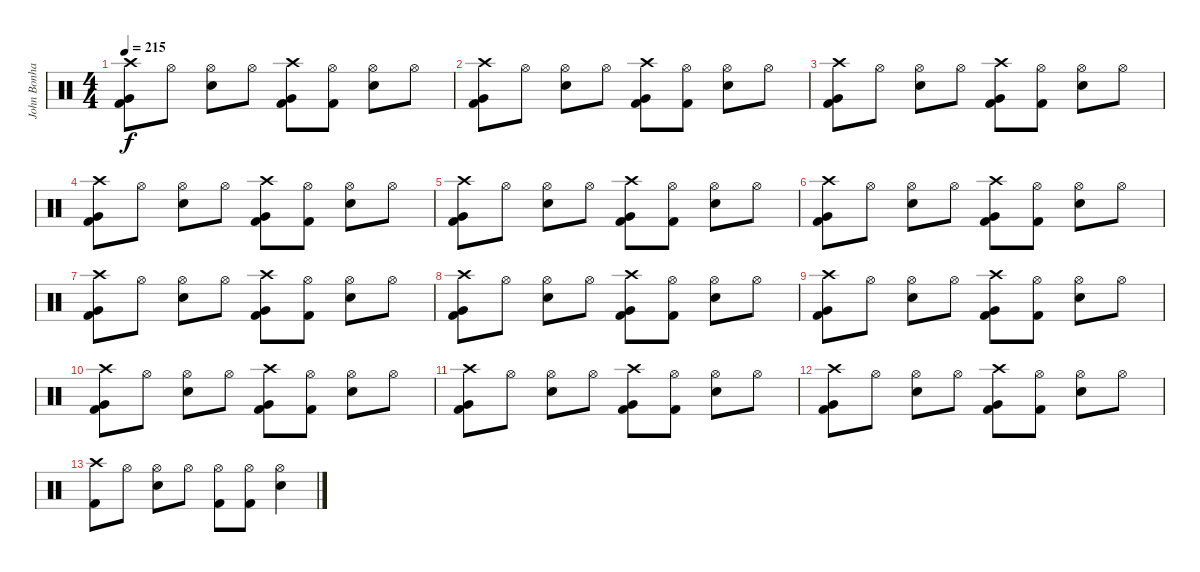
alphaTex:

\track ("John Bonham" "John Bonha") {instrument percussion}
\staff {score}
\articulation defaults
\ts (4 4)
\tempo 215
\clef neutral
\ks c
("Crash high (hit)" "Very Low Tom (hit)" "Kick (hit) 2").8{dy f} "Hi-Hat (open)".8 ("Hi-Hat (open)" "Snare (hit) 2").8 "Hi-Hat (open)".8 ("Crash high (hit)" "Very Low Tom (hit)" "Kick (hit) 2").8 ("Hi-Hat (open)" "Kick (hit) 2").8 ("Hi-Hat (open)" "Snare (hit) 2").8 "Hi-Hat (open)".8 |
("Crash high (hit)" "Very Low Tom (hit)" "Kick (hit) 2").8 "Hi-Hat (open)".8 ("Hi-Hat (open)" "Snare (hit) 2").8 "Hi-Hat (open)".8 ("Crash high (hit)" "Very Low Tom (hit)" "Kick (hit) 2").8 ("Hi-Hat (open)" "Kick (hit) 2").8 ("Hi-Hat (open)" "Snare (hit) 2").8 "Hi-Hat (open)".8 |
("Crash high (hit)" "Very Low Tom (hit)" "Kick (hit) 2").8 "Hi-Hat (open)".8 ("Hi-Hat (open)" "Snare (hit) 2").8 "Hi-Hat (open)".8 ("Crash high (hit)" "Very Low Tom (hit)" "Kick (hit) 2").8 ("Hi-Hat (open)" "Kick (hit) 2").8 ("Hi-Hat (open)" "Snare (hit) 2").8 "Hi-Hat (open)".8 |
("Crash high (hit)" "Very Low Tom (hit)" "Kick (hit) 2").8 "Hi-Hat (open)".8 ("Hi-Hat (open)" "Snare (hit) 2").8 "Hi-Hat (open)".8 ("Crash high (hit)" "Very Low Tom (hit)" "Kick (hit) 2").8 ("Hi-Hat (open)" "Kick (hit) 2").8 ("Hi-Hat (open)" "Snare (hit) 2").8 "Hi-Hat (open)".8 |
("Crash high (hit)" "Very Low Tom (hit)" "Kick (hit) 2").8 "Hi-Hat (open)".8 ("Hi-Hat (open)" "Snare (hit) 2").8 "Hi-Hat (open)".8 ("Crash high (hit)" "Very Low Tom (hit)" "Kick (hit) 2").8 ("Hi-Hat (open)" "Kick (hit) 2").8 ("Hi-Hat (open)" "Snare (hit) 2").8 "Hi-Hat (open)".8 |
("Crash high (hit)" "Very Low Tom (hit)" "Kick (hit) 2").8 "Hi-Hat (open)".8 ("Hi-Hat (open)" "Snare (hit) 2").8 "Hi-Hat (open)".8 ("Crash high (hit)" "Very Low Tom (hit)" "Kick (hit) 2").8 ("Hi-Hat (open)" "Kick (hit) 2").8 ("Hi-Hat (open)" "Snare (hit) 2").8 "Hi-Hat (open)".8 |
("Crash high (hit)" "Very Low Tom (hit)" "Kick (hit) 2").8 "Hi-Hat (open)".8 ("Hi-Hat (open)" "Snare (hit) 2").8 "Hi-Hat (open)".8 ("Crash high (hit)" "Very Low Tom (hit)" "Kick (hit) 2").8 ("Hi-Hat (open)" "Kick (hit) 2").8 ("Hi-Hat (open)" "Snare (hit) 2").8 "Hi-Hat (open)".8 |
("Crash high (hit)" "Very Low Tom (hit)" "Kick (hit) 2").8 "Hi-Hat (open)".8 ("Hi-Hat (open)" "Snare (hit) 2").8 "Hi-Hat (open)".8 ("Crash high (hit)" "Very Low Tom (hit)" "Kick (hit) 2").8 ("Hi-Hat (open)" "Kick (hit) 2").8 ("Hi-Hat (open)" "Snare (hit) 2").8 "Hi-Hat (open)".8 |
("Crash high (hit)" "Very Low Tom (hit)" "Kick (hit) 2").8 "Hi-Hat (open)".8 ("Hi-Hat (open)" "Snare (hit) 2").8 "Hi-Hat (open)".8 ("Crash high (hit)" "Very Low Tom (hit)" "Kick (hit) 2").8 ("Hi-Hat (open)" "Kick (hit) 2").8 ("Hi-Hat (open)" "Snare (hit) 2").8 "Hi-Hat (open)".8 |
("Crash high (hit)" "Very Low Tom (hit)" "Kick (hit) 2").8 "Hi-Hat (open)".8 ("Hi-Hat (open)" "Snare (hit) 2").8 "Hi-Hat (open)".8 ("Crash high (hit)" "Very Low Tom (hit)" "Kick (hit) 2").8 ("Hi-Hat (open)" "Kick (hit) 2").8 ("Hi-Hat (open)" "Snare (hit) 2").8 "Hi-Hat (open)".8 |
("Crash high (hit)" "Very Low Tom (hit)" "Kick (hit) 2").8 "Hi-Hat (open)".8 ("Hi-Hat (open)" "Snare (hit) 2").8 "Hi-Hat (open)".8 ("Crash high (hit)" "Very Low Tom (hit)" "Kick (hit) 2").8 ("Hi-Hat (open)" "Kick (hit) 2").8 ("Hi-Hat (open)" "Snare (hit) 2").8 "Hi-Hat (open)".8 |
("Crash high (hit)" "Very Low Tom (hit)" "Kick (hit) 2").8 "Hi-Hat (open)".8 ("Hi-Hat (open)" "Snare (hit) 2").8 "Hi-Hat (open)".8 ("Crash high (hit)" "Very Low Tom (hit)" "Kick (hit) 2").8 ("Hi-Hat (open)" "Kick (hit) 2").8 ("Hi-Hat (open)" "Snare (hit) 2").8 "Hi-Hat (open)".8 |
("Crash high (hit)" "Kick (hit) 2").8 "Hi-Hat (open)".8 ("Hi-Hat (open)" "Snare (hit) 2").8 "Hi-Hat (open)".8 ("Hi-Hat (open)" "Kick (hit) 2").8 ("Hi-Hat (open)" "Kick (hit) 2").8 ("Hi-Hat (open)" "Snare (hit) 2").4
